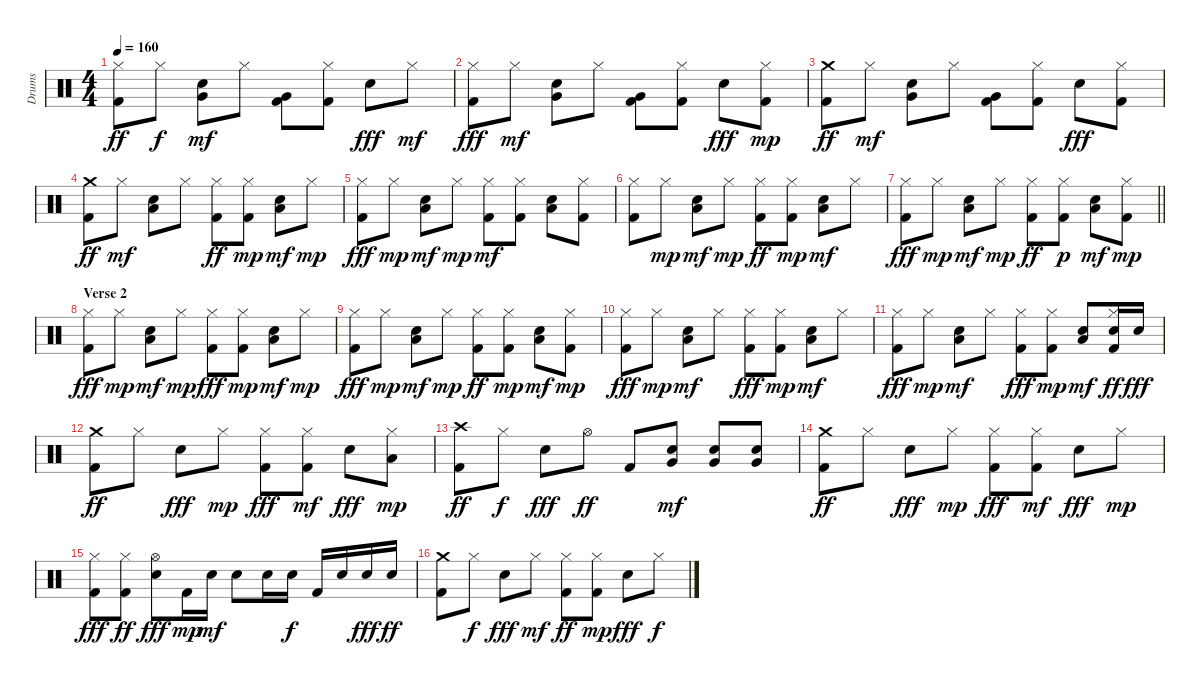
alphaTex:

\track ("Drums" "Drums") {instrument percussion}
\staff {score}
\articulation defaults
\ts (4 4)
\tempo 160
\clef neutral
\ks c
("Kick (hit) 2" "Hi-Hat (closed)").8{dy ff} "Hi-Hat (closed)".8{dy f} ("Electric Snare (hit)" "Very Low Tom (hit)").8{dy mf} "Hi-Hat (closed)".8 ("Kick (hit) 2" "Very Low Tom (hit)").8 ("Kick (hit) 2" "Hi-Hat (closed)").8 "Electric Snare (hit)".8{dy fff} "Hi-Hat (closed)".8{dy mf} |
("Kick (hit) 2" "Hi-Hat (closed)").8{dy fff} "Hi-Hat (closed)".8{dy mf} ("Electric Snare (hit)" "Very Low Tom (hit)").8 "Hi-Hat (closed)".8 ("Kick (hit) 2" "Very Low Tom (hit)").8 ("Kick (hit) 2" "Hi-Hat (closed)").8 "Electric Snare (hit)".8{dy fff} ("Kick (hit) 2" "Hi-Hat (closed)").8{dy mp} |
("Kick (hit) 2" "Crash medium (hit)").8{dy ff} "Hi-Hat (closed)".8{dy mf} ("Electric Snare (hit)" "Very Low Tom (hit)").8 "Hi-Hat (closed)".8 ("Kick (hit) 2" "Very Low Tom (hit)").8 ("Kick (hit) 2" "Hi-Hat (closed)").8 "Electric Snare (hit)".8{dy fff} ("Kick (hit) 2" "Hi-Hat (closed)").8 |
("Kick (hit) 2" "Crash medium (hit)").8{dy ff} "Hi-Hat (closed)".8{dy mf} ("Electric Snare (hit)" "Low Tom (hit)").8 "Hi-Hat (closed)".8 ("Kick (hit) 2" "Hi-Hat (closed)").8{dy ff} ("Kick (hit) 2" "Hi-Hat (closed)").8{dy mp} ("Electric Snare (hit)" "Low Tom (hit)").8{dy mf} "Hi-Hat (closed)".8{dy mp} |
("Kick (hit) 2" "Hi-Hat (closed)").8{dy fff} "Hi-Hat (closed)".8{dy mp} ("Electric Snare (hit)" "Low Tom (hit)").8{dy mf} "Hi-Hat (closed)".8{dy mp} ("Kick (hit) 2" "Hi-Hat (closed)").8{dy mf} ("Kick (hit) 2" "Hi-Hat (closed)").8 ("Electric Snare (hit)" "Low Tom (hit)").8 ("Kick (hit) 2" "Hi-Hat (closed)").8 |
("Kick (hit) 2" "Hi-Hat (closed)").8 "Hi-Hat (closed)".8{dy mp} ("Electric Snare (hit)" "Low Tom (hit)").8{dy mf} "Hi-Hat (closed)".8{dy mp} ("Kick (hit) 2" "Hi-Hat (closed)").8{dy ff} ("Kick (hit) 2" "Hi-Hat (closed)").8{dy mp} ("Electric Snare (hit)" "Low Tom (hit)").8{dy mf} "Hi-Hat (closed)".8 |
\barLineRight lightlight
("Kick (hit) 2" "Hi-Hat (closed)").8{dy fff} "Hi-Hat (closed)".8{dy mp} ("Electric Snare (hit)" "Low Tom (hit)").8{dy mf} "Hi-Hat (closed)".8{dy mp} ("Kick (hit) 2" "Hi-Hat (closed)").8{dy ff} ("Kick (hit) 2" "Hi-Hat (closed)").8{dy p} ("Electric Snare (hit)" "Low Tom (hit)").8{dy mf} ("Kick (hit) 2" "Hi-Hat (closed)").8{dy mp} |
\section ("" "Verse 2")
("Kick (hit) 2" "Hi-Hat (closed)").8{dy fff} "Hi-Hat (closed)".8{dy mp} ("Electric Snare (hit)" "Low Tom (hit)").8{dy mf} "Hi-Hat (closed)".8{dy mp} ("Kick (hit) 2" "Hi-Hat (closed)").8{dy fff} ("Kick (hit) 2" "Hi-Hat (closed)").8{dy mp} ("Electric Snare (hit)" "Low Tom (hit)").8{dy mf} "Hi-Hat (closed)".8{dy mp} |
("Kick (hit) 2" "Hi-Hat (closed)").8{dy fff} "Hi-Hat (closed)".8{dy mp} ("Electric Snare (hit)" "Low Tom (hit)").8{dy mf} "Hi-Hat (closed)".8{dy mp} ("Kick (hit) 2" "Hi-Hat (closed)").8{dy ff} ("Kick (hit) 2" "Hi-Hat (closed)").8{dy mp} ("Electric Snare (hit)" "Low Tom (hit)").8{dy mf} ("Kick (hit) 2" "Hi-Hat (closed)").8{dy mp} |
("Kick (hit) 2" "Hi-Hat (closed)").8{dy fff} "Hi-Hat (closed)".8{dy mp} ("Electric Snare (hit)" "Low Tom (hit)").8{dy mf} "Hi-Hat (closed)".8 ("Kick (hit) 2" "Hi-Hat (closed)").8{dy fff} ("Kick (hit) 2" "Hi-Hat (closed)").8{dy mp} ("Electric Snare (hit)" "Low Tom (hit)").8{dy mf} "Hi-Hat (closed)".8 |
("Kick (hit) 2" "Hi-Hat (closed)").8{dy fff} "Hi-Hat (closed)".8{dy mp} ("Electric Snare (hit)" "Low Tom (hit)").8{dy mf} "Hi-Hat (closed)".8 ("Kick (hit) 2" "Hi-Hat (closed)").8{dy fff} ("Kick (hit) 2" "Hi-Hat (closed)").8{dy mp} ("Electric Snare (hit)" "Low Tom (hit)").8{dy mf} ("Kick (hit) 2" "Electric Snare (hit)" "Hi-Hat (closed)").16{dy ff} "Electric Snare (hit)".16{dy fff} |
("Kick (hit) 2" "Crash medium (hit)").8{dy ff} "Hi-Hat (closed)".8 "Electric Snare (hit)".8{dy fff} "Hi-Hat (closed)".8{dy mp} ("Kick (hit) 2" "Hi-Hat (closed)").8{dy fff} ("Kick (hit) 2" "Hi-Hat (closed)").8{dy mf} "Electric Snare (hit)".8{dy fff} ("Hi-Hat (closed)" "Low Tom (hit)").8{dy mp} |
("Kick (hit) 2" "Crash high (hit)").8{dy ff} "Hi-Hat (closed)".8{dy f} "Electric Snare (hit)".8{dy fff} "Hi-Hat (open)".8{dy ff} "Kick (hit) 2".8 ("Electric Snare (hit)" "Very Low Tom (hit)").8{dy mf} ("Electric Snare (hit)" "Very Low Tom (hit)").8 ("Electric Snare (hit)" "Very Low Tom (hit)").8 |
("Kick (hit) 2" "Crash medium (hit)").8{dy ff} "Hi-Hat (closed)".8 "Electric Snare (hit)".8{dy fff} "Hi-Hat (closed)".8{dy mp} ("Kick (hit) 2" "Hi-Hat (closed)").8{dy fff} ("Kick (hit) 2" "Hi-Hat (closed)").8{dy mf} "Electric Snare (hit)".8{dy fff} "Hi-Hat (closed)".8{dy mp} |
("Kick (hit) 2" "Hi-Hat (closed)").8{dy fff} ("Kick (hit) 2" "Hi-Hat (closed)").8{dy ff} ("Electric Snare (hit)" "Hi-Hat (open)").8{dy fff} "Kick (hit) 2".16{dy mp} "Electric Snare (hit)".16{dy mf} "Electric Snare (hit)".8 "Electric Snare (hit)".16 "Electric Snare (hit)".16{dy f} "Kick (hit) 2".16 "Electric Snare (hit)".16 "Electric Snare (hit)".16{dy fff} "Electric Snare (hit)".16{dy ff} |
("Kick (hit) 2" "Crash medium (hit)").8 "Hi-Hat (closed)".8{dy f} "Electric Snare (hit)".8{dy fff} "Hi-Hat (closed)".8{dy mf} ("Kick (hit) 2" "Hi-Hat (closed)").8{dy ff} ("Kick (hit) 2" "Hi-Hat (closed)").8{dy mp} "Electric Snare (hit)".8{dy fff} "Hi-Hat (closed)".8{dy f}
